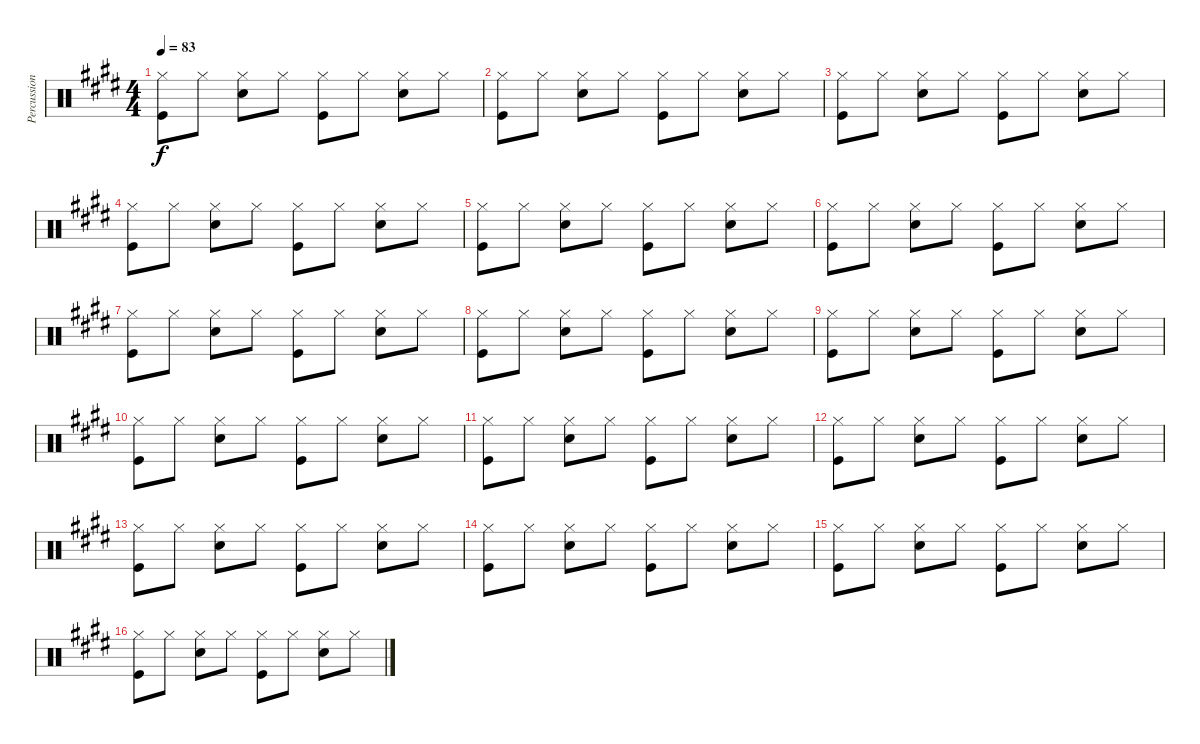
\track ("Percussion" "Percussion") {instrument percussion}
\staff {score}
\articulation defaults
\ts (4 4)
\tempo 83
\clef neutral
\ks e
("Kick (hit)" "Hi-Hat (closed)").8{dy f} "Hi-Hat (closed)".8 ("Hi-Hat (closed)" "Snare (hit) 2").8 "Hi-Hat (closed)".8 ("Hi-Hat (closed)" "Kick (hit)").8 "Hi-Hat (closed)".8 ("Hi-Hat (closed)" "Snare (hit) 2").8 "Hi-Hat (closed)".8 |
("Kick (hit)" "Hi-Hat (closed)").8 "Hi-Hat (closed)".8 ("Hi-Hat (closed)" "Snare (hit) 2").8 "Hi-Hat (closed)".8 ("Hi-Hat (closed)" "Kick (hit)").8 "Hi-Hat (closed)".8 ("Hi-Hat (closed)" "Snare (hit) 2").8 "Hi-Hat (closed)".8 |
("Kick (hit)" "Hi-Hat (closed)").8 "Hi-Hat (closed)".8 ("Hi-Hat (closed)" "Snare (hit) 2").8 "Hi-Hat (closed)".8 ("Hi-Hat (closed)" "Kick (hit)").8 "Hi-Hat (closed)".8 ("Hi-Hat (closed)" "Snare (hit) 2").8 "Hi-Hat (closed)".8 |
("Kick (hit)" "Hi-Hat (closed)").8 "Hi-Hat (closed)".8 ("Hi-Hat (closed)" "Snare (hit) 2").8 "Hi-Hat (closed)".8 ("Hi-Hat (closed)" "Kick (hit)").8 "Hi-Hat (closed)".8 ("Hi-Hat (closed)" "Snare (hit) 2").8 "Hi-Hat (closed)".8 |
("Kick (hit)" "Hi-Hat (closed)").8 "Hi-Hat (closed)".8 ("Hi-Hat (closed)" "Snare (hit) 2").8 "Hi-Hat (closed)".8 ("Hi-Hat (closed)" "Kick (hit)").8 "Hi-Hat (closed)".8 ("Hi-Hat (closed)" "Snare (hit) 2").8 "Hi-Hat (closed)".8 |
("Kick (hit)" "Hi-Hat (closed)").8 "Hi-Hat (closed)".8 ("Hi-Hat (closed)" "Snare (hit) 2").8 "Hi-Hat (closed)".8 ("Hi-Hat (closed)" "Kick (hit)").8 "Hi-Hat (closed)".8 ("Hi-Hat (closed)" "Snare (hit) 2").8 "Hi-Hat (closed)".8 |
("Kick (hit)" "Hi-Hat (closed)").8 "Hi-Hat (closed)".8 ("Hi-Hat (closed)" "Snare (hit) 2").8 "Hi-Hat (closed)".8 ("Hi-Hat (closed)" "Kick (hit)").8 "Hi-Hat (closed)".8 ("Hi-Hat (closed)" "Snare (hit) 2").8 "Hi-Hat (closed)".8 |
("Kick (hit)" "Hi-Hat (closed)").8 "Hi-Hat (closed)".8 ("Hi-Hat (closed)" "Snare (hit) 2").8 "Hi-Hat (closed)".8 ("Hi-Hat (closed)" "Kick (hit)").8 "Hi-Hat (closed)".8 ("Hi-Hat (closed)" "Snare (hit) 2").8 "Hi-Hat (closed)".8 |
("Kick (hit)" "Hi-Hat (closed)").8 "Hi-Hat (closed)".8 ("Hi-Hat (closed)" "Snare (hit) 2").8 "Hi-Hat (closed)".8 ("Hi-Hat (closed)" "Kick (hit)").8 "Hi-Hat (closed)".8 ("Hi-Hat (closed)" "Snare (hit) 2").8 "Hi-Hat (closed)".8 |
("Kick (hit)" "Hi-Hat (closed)").8 "Hi-Hat (closed)".8 ("Hi-Hat (closed)" "Snare (hit) 2").8 "Hi-Hat (closed)".8 ("Hi-Hat (closed)" "Kick (hit)").8 "Hi-Hat (closed)".8 ("Hi-Hat (closed)" "Snare (hit) 2").8 "Hi-Hat (closed)".8 |
("Kick (hit)" "Hi-Hat (closed)").8 "Hi-Hat (closed)".8 ("Hi-Hat (closed)" "Snare (hit) 2").8 "Hi-Hat (closed)".8 ("Hi-Hat (closed)" "Kick (hit)").8 "Hi-Hat (closed)".8 ("Hi-Hat (closed)" "Snare (hit) 2").8 "Hi-Hat (closed)".8 |
("Kick (hit)" "Hi-Hat (closed)").8 "Hi-Hat (closed)".8 ("Hi-Hat (closed)" "Snare (hit) 2").8 "Hi-Hat (closed)".8 ("Hi-Hat (closed)" "Kick (hit)").8 "Hi-Hat (closed)".8 ("Hi-Hat (closed)" "Snare (hit) 2").8 "Hi-Hat (closed)".8 |
("Kick (hit)" "Hi-Hat (closed)").8 "Hi-Hat (closed)".8 ("Hi-Hat (closed)" "Snare (hit) 2").8 "Hi-Hat (closed)".8 ("Hi-Hat (closed)" "Kick (hit)").8 "Hi-Hat (closed)".8 ("Hi-Hat (closed)" "Snare (hit) 2").8 "Hi-Hat (closed)".8 |
("Kick (hit)" "Hi-Hat (closed)").8 "Hi-Hat (closed)".8 ("Hi-Hat (closed)" "Snare (hit) 2").8 "Hi-Hat (closed)".8 ("Hi-Hat (closed)" "Kick (hit)").8 "Hi-Hat (closed)".8 ("Hi-Hat (closed)" "Snare (hit) 2").8 "Hi-Hat (closed)".8 |
("Kick (hit)" "Hi-Hat (closed)").8 "Hi-Hat (closed)".8 ("Hi-Hat (closed)" "Snare (hit) 2").8 "Hi-Hat (closed)".8 ("Hi-Hat (closed)" "Kick (hit)").8 "Hi-Hat (closed)".8 ("Hi-Hat (closed)" "Snare (hit) 2").8 "Hi-Hat (closed)".8 |
("Kick (hit)" "Hi-Hat (closed)").8 "Hi-Hat (closed)".8 ("Hi-Hat (closed)" "Snare (hit) 2").8 "Hi-Hat (closed)".8 ("Hi-Hat (closed)" "Kick (hit)").8 "Hi-Hat (closed)".8 ("Hi-Hat (closed)" "Snare (hit) 2").8 "Hi-Hat (closed)".8
